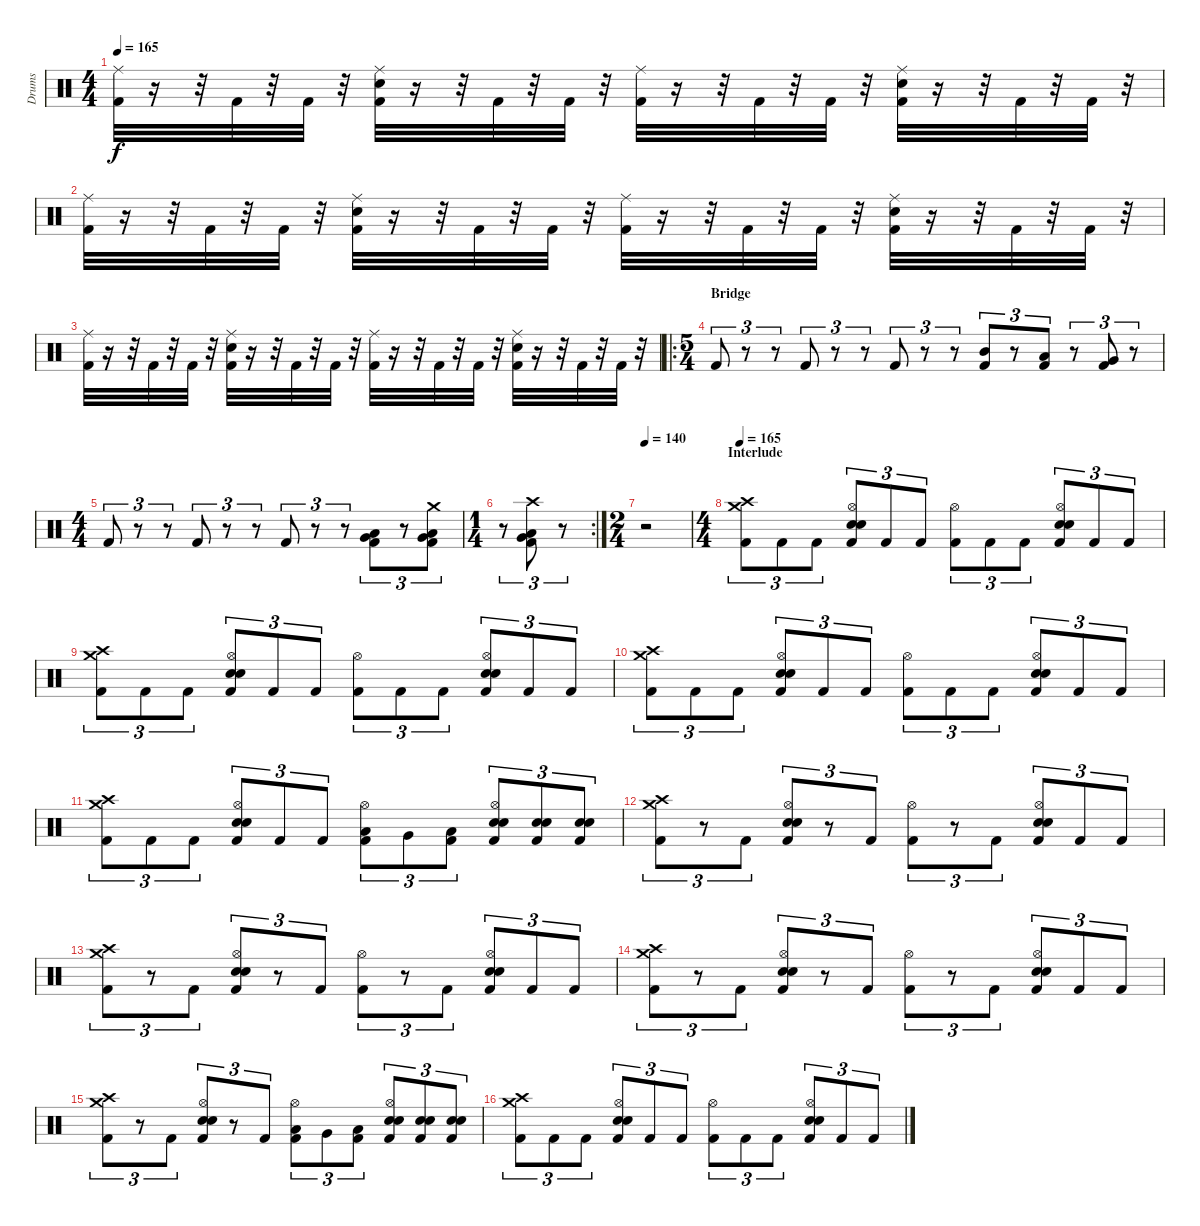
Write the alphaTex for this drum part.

\track ("Drums" "Drums") {instrument percussion}
\staff {score}
\articulation defaults
\ts (4 4)
\tempo 165
\clef neutral
\ks c
("Ride (middle)" "Kick (hit) 2").32{dy f} r.16 r.32 "Kick (hit) 2".32 r.32 "Kick (hit) 2".32 r.32 ("Ride (middle)" "Snare (hit) 2" "Kick (hit) 2").32 r.16 r.32 "Kick (hit) 2".32 r.32 "Kick (hit) 2".32 r.32 ("Ride (middle)" "Kick (hit) 2").32 r.16 r.32 "Kick (hit) 2".32 r.32 "Kick (hit) 2".32 r.32 ("Ride (middle)" "Snare (hit) 2" "Kick (hit) 2").32 r.16 r.32 "Kick (hit) 2".32 r.32 "Kick (hit) 2".32 r.32 |
("Kick (hit) 2" "Ride (middle)").32 r.16 r.32 "Kick (hit) 2".32 r.32 "Kick (hit) 2".32 r.32 ("Ride (middle)" "Snare (hit) 2" "Kick (hit) 2").32 r.16 r.32 "Kick (hit) 2".32 r.32 "Kick (hit) 2".32 r.32 ("Kick (hit) 2" "Ride (middle)").32 r.16 r.32 "Kick (hit) 2".32 r.32 "Kick (hit) 2".32 r.32 ("Snare (hit) 2" "Ride (middle)" "Kick (hit) 2").32 r.16 r.32 "Kick (hit) 2".32 r.32 "Kick (hit) 2".32 r.32 |
("Ride (middle)" "Kick (hit) 2").32 r.16 r.32 "Kick (hit) 2".32 r.32 "Kick (hit) 2".32 r.32 ("Ride (middle)" "Snare (hit) 2" "Kick (hit) 2").32 r.16 r.32 "Kick (hit) 2".32 r.32 "Kick (hit) 2".32 r.32 ("Ride (middle)" "Kick (hit) 2").32 r.16 r.32 "Kick (hit) 2".32 r.32 "Kick (hit) 2".32 r.32 ("Ride (middle)" "Snare (hit) 2" "Kick (hit) 2").32 r.16 r.32 "Kick (hit) 2".32 r.32 "Kick (hit) 2".32 r.32 |
\ro
\ts (5 4)
\section ("" "Bridge")
"Kick (hit) 2".8{tu (3 2)} r.8{tu (3 2)} r.8{tu (3 2)} "Kick (hit) 2".8{tu (3 2)} r.8{tu (3 2)} r.8{tu (3 2)} "Kick (hit) 2".8{tu (3 2)} r.8{tu (3 2)} r.8{tu (3 2)} ("Mid Tom (hit)" "Kick (hit) 2").8{tu (3 2)} r.8{tu (3 2)} ("Low Tom (hit)" "Kick (hit) 2").8{tu (3 2)} r.8{tu (3 2)} ("Very Low Tom (hit)" "Kick (hit) 2").8{tu (3 2)} r.8{tu (3 2)} |
\ts (4 4)
"Kick (hit) 2".8{tu (3 2)} r.8{tu (3 2)} r.8{tu (3 2)} "Kick (hit) 2".8{tu (3 2)} r.8{tu (3 2)} r.8{tu (3 2)} "Kick (hit) 2".8{tu (3 2)} r.8{tu (3 2)} r.8{tu (3 2)} ("Very Low Tom (hit)" "Low Floor Tom (hit)" "Kick (hit) 2").8{tu (3 2)} r.8{tu (3 2)} ("Crash medium (hit)" "Low Tom (hit)" "Very Low Tom (hit)" "Kick (hit) 2").8{tu (3 2)} |
\rc 2
\ts (1 4)
r.8{tu (3 2)} ("Crash high (hit)" "Very Low Tom (hit)" "Low Floor Tom (hit)" "Kick (hit) 2").8{tu (3 2)} r.8{tu (3 2)} |
\ts (2 4)
\tempo 140
r.2 |
\ts (4 4)
\section ("" "Interlude")
\tempo 165
("Crash high (hit)" "Crash medium (hit)" "Kick (hit) 2").8{tu (3 2)} "Kick (hit) 2".8{tu (3 2)} "Kick (hit) 2".8{tu (3 2)} ("Hi-Hat (open)" "Electric Snare (hit)" "Snare (hit) 2" "Kick (hit) 2").8{tu (3 2)} "Kick (hit) 2".8{tu (3 2)} "Kick (hit) 2".8{tu (3 2)} ("Hi-Hat (open)" "Kick (hit) 2").8{tu (3 2)} "Kick (hit) 2".8{tu (3 2)} "Kick (hit) 2".8{tu (3 2)} ("Hi-Hat (open)" "Electric Snare (hit)" "Snare (hit) 2" "Kick (hit) 2").8{tu (3 2)} "Kick (hit) 2".8{tu (3 2)} "Kick (hit) 2".8{tu (3 2)} |
("Crash high (hit)" "Crash medium (hit)" "Kick (hit) 2").8{tu (3 2)} "Kick (hit) 2".8{tu (3 2)} "Kick (hit) 2".8{tu (3 2)} ("Hi-Hat (open)" "Electric Snare (hit)" "Snare (hit) 2" "Kick (hit) 2").8{tu (3 2)} "Kick (hit) 2".8{tu (3 2)} "Kick (hit) 2".8{tu (3 2)} ("Hi-Hat (open)" "Kick (hit) 2").8{tu (3 2)} "Kick (hit) 2".8{tu (3 2)} "Kick (hit) 2".8{tu (3 2)} ("Hi-Hat (open)" "Electric Snare (hit)" "Snare (hit) 2" "Kick (hit) 2").8{tu (3 2)} "Kick (hit) 2".8{tu (3 2)} "Kick (hit) 2".8{tu (3 2)} |
("Crash high (hit)" "Crash medium (hit)" "Kick (hit) 2").8{tu (3 2)} "Kick (hit) 2".8{tu (3 2)} "Kick (hit) 2".8{tu (3 2)} ("Hi-Hat (open)" "Electric Snare (hit)" "Snare (hit) 2" "Kick (hit) 2").8{tu (3 2)} "Kick (hit) 2".8{tu (3 2)} "Kick (hit) 2".8{tu (3 2)} ("Hi-Hat (open)" "Kick (hit) 2").8{tu (3 2)} "Kick (hit) 2".8{tu (3 2)} "Kick (hit) 2".8{tu (3 2)} ("Hi-Hat (open)" "Electric Snare (hit)" "Snare (hit) 2" "Kick (hit) 2").8{tu (3 2)} "Kick (hit) 2".8{tu (3 2)} "Kick (hit) 2".8{tu (3 2)} |
("Crash high (hit)" "Crash medium (hit)" "Kick (hit) 2").8{tu (3 2)} "Kick (hit) 2".8{tu (3 2)} "Kick (hit) 2".8{tu (3 2)} ("Hi-Hat (open)" "Electric Snare (hit)" "Snare (hit) 2" "Kick (hit) 2").8{tu (3 2)} "Kick (hit) 2".8{tu (3 2)} "Kick (hit) 2".8{tu (3 2)} ("Hi-Hat (open)" "Low Tom (hit)" "Kick (hit) 2").8{tu (3 2)} "Very Low Tom (hit)".8{tu (3 2)} ("Low Floor Tom (hit)" "Kick (hit) 2").8{tu (3 2)} ("Hi-Hat (open)" "Electric Snare (hit)" "Snare (hit) 2" "Kick (hit) 2").8{tu (3 2)} ("Electric Snare (hit)" "Snare (hit) 2" "Kick (hit) 2").8{tu (3 2)} ("Electric Snare (hit)" "Snare (hit) 2" "Kick (hit) 2").8{tu (3 2)} |
("Crash high (hit)" "Crash medium (hit)" "Kick (hit) 2").8{tu (3 2)} r.8{tu (3 2)} "Kick (hit) 2".8{tu (3 2)} ("Hi-Hat (open)" "Electric Snare (hit)" "Snare (hit) 2" "Kick (hit) 2").8{tu (3 2)} r.8{tu (3 2)} "Kick (hit) 2".8{tu (3 2)} ("Hi-Hat (open)" "Kick (hit) 2").8{tu (3 2)} r.8{tu (3 2)} "Kick (hit) 2".8{tu (3 2)} ("Hi-Hat (open)" "Electric Snare (hit)" "Snare (hit) 2" "Kick (hit) 2").8{tu (3 2)} "Kick (hit) 2".8{tu (3 2)} "Kick (hit) 2".8{tu (3 2)} |
("Crash high (hit)" "Crash medium (hit)" "Kick (hit) 2").8{tu (3 2)} r.8{tu (3 2)} "Kick (hit) 2".8{tu (3 2)} ("Hi-Hat (open)" "Electric Snare (hit)" "Snare (hit) 2" "Kick (hit) 2").8{tu (3 2)} r.8{tu (3 2)} "Kick (hit) 2".8{tu (3 2)} ("Hi-Hat (open)" "Kick (hit) 2").8{tu (3 2)} r.8{tu (3 2)} "Kick (hit) 2".8{tu (3 2)} ("Hi-Hat (open)" "Electric Snare (hit)" "Snare (hit) 2" "Kick (hit) 2").8{tu (3 2)} "Kick (hit) 2".8{tu (3 2)} "Kick (hit) 2".8{tu (3 2)} |
("Crash high (hit)" "Crash medium (hit)" "Kick (hit) 2").8{tu (3 2)} r.8{tu (3 2)} "Kick (hit) 2".8{tu (3 2)} ("Hi-Hat (open)" "Electric Snare (hit)" "Snare (hit) 2" "Kick (hit) 2").8{tu (3 2)} r.8{tu (3 2)} "Kick (hit) 2".8{tu (3 2)} ("Hi-Hat (open)" "Kick (hit) 2").8{tu (3 2)} r.8{tu (3 2)} "Kick (hit) 2".8{tu (3 2)} ("Hi-Hat (open)" "Electric Snare (hit)" "Snare (hit) 2" "Kick (hit) 2").8{tu (3 2)} "Kick (hit) 2".8{tu (3 2)} "Kick (hit) 2".8{tu (3 2)} |
("Crash high (hit)" "Crash medium (hit)" "Kick (hit) 2").8{tu (3 2)} r.8{tu (3 2)} "Kick (hit) 2".8{tu (3 2)} ("Hi-Hat (open)" "Electric Snare (hit)" "Snare (hit) 2" "Kick (hit) 2").8{tu (3 2)} r.8{tu (3 2)} "Kick (hit) 2".8{tu (3 2)} ("Hi-Hat (open)" "Low Tom (hit)" "Kick (hit) 2").8{tu (3 2)} "Very Low Tom (hit)".8{tu (3 2)} ("Low Floor Tom (hit)" "Kick (hit) 2").8{tu (3 2)} ("Hi-Hat (open)" "Electric Snare (hit)" "Snare (hit) 2" "Kick (hit) 2").8{tu (3 2)} ("Electric Snare (hit)" "Snare (hit) 2" "Kick (hit) 2").8{tu (3 2)} ("Electric Snare (hit)" "Snare (hit) 2" "Kick (hit) 2").8{tu (3 2)} |
("Crash high (hit)" "Crash medium (hit)" "Kick (hit) 2").8{tu (3 2)} "Kick (hit) 2".8{tu (3 2)} "Kick (hit) 2".8{tu (3 2)} ("Hi-Hat (open)" "Electric Snare (hit)" "Snare (hit) 2" "Kick (hit) 2").8{tu (3 2)} "Kick (hit) 2".8{tu (3 2)} "Kick (hit) 2".8{tu (3 2)} ("Hi-Hat (open)" "Kick (hit) 2").8{tu (3 2)} "Kick (hit) 2".8{tu (3 2)} "Kick (hit) 2".8{tu (3 2)} ("Hi-Hat (open)" "Electric Snare (hit)" "Snare (hit) 2" "Kick (hit) 2").8{tu (3 2)} "Kick (hit) 2".8{tu (3 2)} "Kick (hit) 2".8{tu (3 2)}
